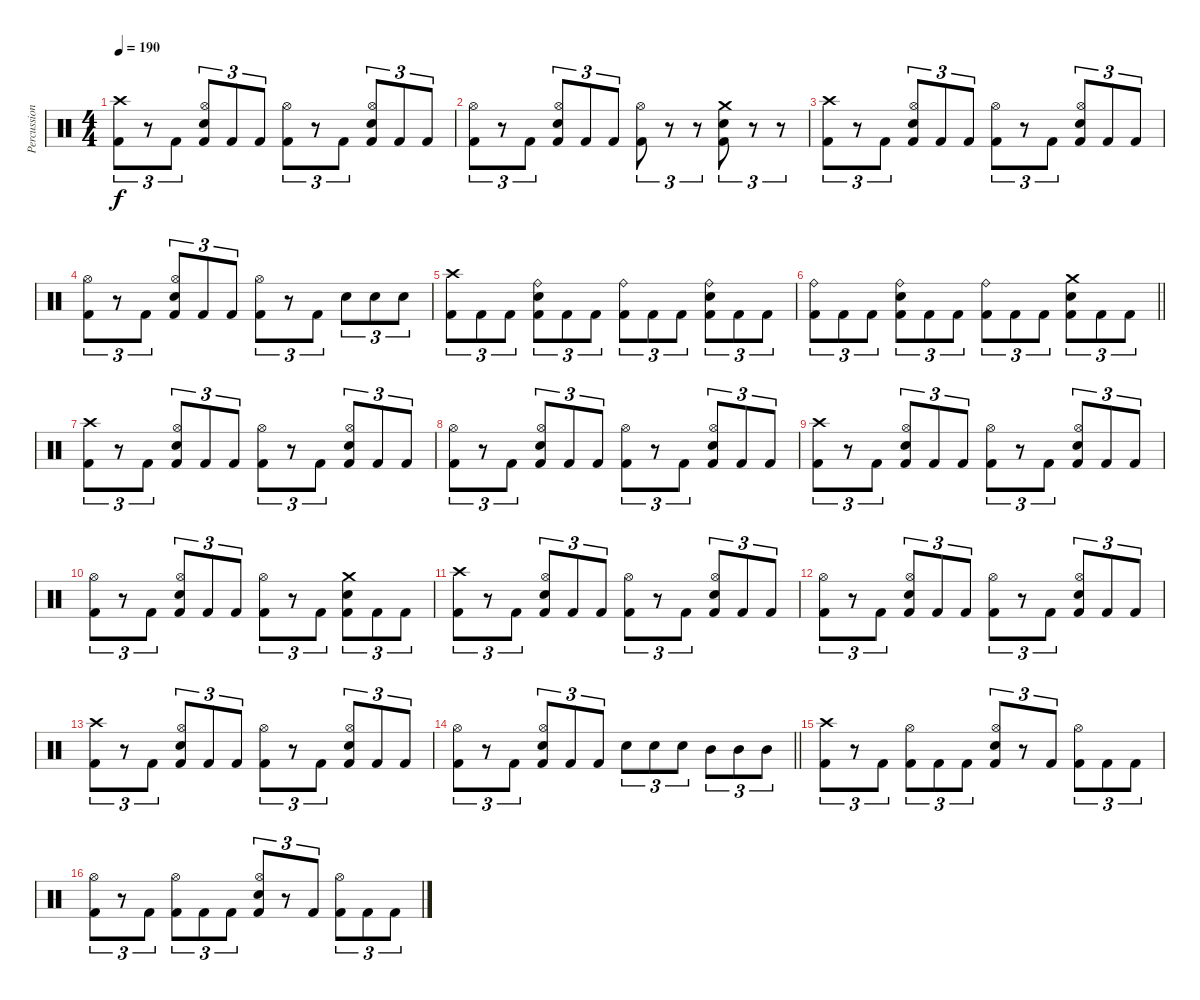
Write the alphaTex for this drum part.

\track ("Percussion" "Percussion") {instrument percussion}
\staff {score}
\articulation defaults
\ts (4 4)
\section ("" "")
\tempo 190
\clef neutral
\ks c
("Crash high (hit)" "Kick (hit) 2").8{tu (3 2) dy f} r.8{tu (3 2)} "Kick (hit) 2".8{tu (3 2)} ("Hi-Hat (open)" "Snare (hit) 2" "Kick (hit) 2").8{tu (3 2)} "Kick (hit) 2".8{tu (3 2)} "Kick (hit) 2".8{tu (3 2)} ("Hi-Hat (open)" "Kick (hit) 2").8{tu (3 2)} r.8{tu (3 2)} "Kick (hit) 2".8{tu (3 2)} ("Hi-Hat (open)" "Snare (hit) 2" "Kick (hit) 2").8{tu (3 2)} "Kick (hit) 2".8{tu (3 2)} "Kick (hit) 2".8{tu (3 2)} |
("Hi-Hat (open)" "Kick (hit) 2").8{tu (3 2)} r.8{tu (3 2)} "Kick (hit) 2".8{tu (3 2)} ("Hi-Hat (open)" "Snare (hit) 2" "Kick (hit) 2").8{tu (3 2)} "Kick (hit) 2".8{tu (3 2)} "Kick (hit) 2".8{tu (3 2)} ("Hi-Hat (open)" "Kick (hit) 2").8{tu (3 2)} r.8{tu (3 2)} r.8{tu (3 2)} ("Crash medium (hit)" "Snare (hit) 2" "Kick (hit) 2").8{tu (3 2)} r.8{tu (3 2)} r.8{tu (3 2)} |
("Crash high (hit)" "Kick (hit) 2").8{tu (3 2)} r.8{tu (3 2)} "Kick (hit) 2".8{tu (3 2)} ("Hi-Hat (open)" "Snare (hit) 2" "Kick (hit) 2").8{tu (3 2)} "Kick (hit) 2".8{tu (3 2)} "Kick (hit) 2".8{tu (3 2)} ("Hi-Hat (open)" "Kick (hit) 2").8{tu (3 2)} r.8{tu (3 2)} "Kick (hit) 2".8{tu (3 2)} ("Hi-Hat (open)" "Snare (hit) 2" "Kick (hit) 2").8{tu (3 2)} "Kick (hit) 2".8{tu (3 2)} "Kick (hit) 2".8{tu (3 2)} |
("Hi-Hat (open)" "Kick (hit) 2").8{tu (3 2)} r.8{tu (3 2)} "Kick (hit) 2".8{tu (3 2)} ("Hi-Hat (open)" "Snare (hit) 2" "Kick (hit) 2").8{tu (3 2)} "Kick (hit) 2".8{tu (3 2)} "Kick (hit) 2".8{tu (3 2)} ("Hi-Hat (open)" "Kick (hit) 2").8{tu (3 2)} r.8{tu (3 2)} "Kick (hit) 2".8{tu (3 2)} "Snare (hit) 2".8{tu (3 2)} "Snare (hit) 2".8{tu (3 2)} "Snare (hit) 2".8{tu (3 2)} |
("Crash high (hit)" "Kick (hit) 2").8{tu (3 2)} "Kick (hit) 2".8{tu (3 2)} "Kick (hit) 2".8{tu (3 2)} ("Ride (bell)" "Snare (hit) 2" "Kick (hit) 2").8{tu (3 2)} "Kick (hit) 2".8{tu (3 2)} "Kick (hit) 2".8{tu (3 2)} ("Ride (bell)" "Kick (hit) 2").8{tu (3 2)} "Kick (hit) 2".8{tu (3 2)} "Kick (hit) 2".8{tu (3 2)} ("Ride (bell)" "Snare (hit) 2" "Kick (hit) 2").8{tu (3 2)} "Kick (hit) 2".8{tu (3 2)} "Kick (hit) 2".8{tu (3 2)} |
\barLineRight lightlight
("Ride (bell)" "Kick (hit) 2").8{tu (3 2)} "Kick (hit) 2".8{tu (3 2)} "Kick (hit) 2".8{tu (3 2)} ("Ride (bell)" "Snare (hit) 2" "Kick (hit) 2").8{tu (3 2)} "Kick (hit) 2".8{tu (3 2)} "Kick (hit) 2".8{tu (3 2)} ("Ride (bell)" "Kick (hit) 2").8{tu (3 2)} "Kick (hit) 2".8{tu (3 2)} "Kick (hit) 2".8{tu (3 2)} ("Crash medium (hit)" "Snare (hit) 2" "Kick (hit) 2").8{tu (3 2)} "Kick (hit) 2".8{tu (3 2)} "Kick (hit) 2".8{tu (3 2)} |
("Crash high (hit)" "Kick (hit) 2").8{tu (3 2)} r.8{tu (3 2)} "Kick (hit) 2".8{tu (3 2)} ("Hi-Hat (open)" "Snare (hit) 2" "Kick (hit) 2").8{tu (3 2)} "Kick (hit) 2".8{tu (3 2)} "Kick (hit) 2".8{tu (3 2)} ("Hi-Hat (open)" "Kick (hit) 2").8{tu (3 2)} r.8{tu (3 2)} "Kick (hit) 2".8{tu (3 2)} ("Hi-Hat (open)" "Snare (hit) 2" "Kick (hit) 2").8{tu (3 2)} "Kick (hit) 2".8{tu (3 2)} "Kick (hit) 2".8{tu (3 2)} |
("Hi-Hat (open)" "Kick (hit) 2").8{tu (3 2)} r.8{tu (3 2)} "Kick (hit) 2".8{tu (3 2)} ("Hi-Hat (open)" "Snare (hit) 2" "Kick (hit) 2").8{tu (3 2)} "Kick (hit) 2".8{tu (3 2)} "Kick (hit) 2".8{tu (3 2)} ("Hi-Hat (open)" "Kick (hit) 2").8{tu (3 2)} r.8{tu (3 2)} "Kick (hit) 2".8{tu (3 2)} ("Hi-Hat (open)" "Snare (hit) 2" "Kick (hit) 2").8{tu (3 2)} "Kick (hit) 2".8{tu (3 2)} "Kick (hit) 2".8{tu (3 2)} |
("Crash high (hit)" "Kick (hit) 2").8{tu (3 2)} r.8{tu (3 2)} "Kick (hit) 2".8{tu (3 2)} ("Hi-Hat (open)" "Snare (hit) 2" "Kick (hit) 2").8{tu (3 2)} "Kick (hit) 2".8{tu (3 2)} "Kick (hit) 2".8{tu (3 2)} ("Hi-Hat (open)" "Kick (hit) 2").8{tu (3 2)} r.8{tu (3 2)} "Kick (hit) 2".8{tu (3 2)} ("Hi-Hat (open)" "Snare (hit) 2" "Kick (hit) 2").8{tu (3 2)} "Kick (hit) 2".8{tu (3 2)} "Kick (hit) 2".8{tu (3 2)} |
("Hi-Hat (open)" "Kick (hit) 2").8{tu (3 2)} r.8{tu (3 2)} "Kick (hit) 2".8{tu (3 2)} ("Hi-Hat (open)" "Snare (hit) 2" "Kick (hit) 2").8{tu (3 2)} "Kick (hit) 2".8{tu (3 2)} "Kick (hit) 2".8{tu (3 2)} ("Hi-Hat (open)" "Kick (hit) 2").8{tu (3 2)} r.8{tu (3 2)} "Kick (hit) 2".8{tu (3 2)} ("Crash medium (hit)" "Snare (hit) 2" "Kick (hit) 2").8{tu (3 2)} "Kick (hit) 2".8{tu (3 2)} "Kick (hit) 2".8{tu (3 2)} |
("Crash high (hit)" "Kick (hit) 2").8{tu (3 2)} r.8{tu (3 2)} "Kick (hit) 2".8{tu (3 2)} ("Hi-Hat (open)" "Snare (hit) 2" "Kick (hit) 2").8{tu (3 2)} "Kick (hit) 2".8{tu (3 2)} "Kick (hit) 2".8{tu (3 2)} ("Hi-Hat (open)" "Kick (hit) 2").8{tu (3 2)} r.8{tu (3 2)} "Kick (hit) 2".8{tu (3 2)} ("Hi-Hat (open)" "Snare (hit) 2" "Kick (hit) 2").8{tu (3 2)} "Kick (hit) 2".8{tu (3 2)} "Kick (hit) 2".8{tu (3 2)} |
("Hi-Hat (open)" "Kick (hit) 2").8{tu (3 2)} r.8{tu (3 2)} "Kick (hit) 2".8{tu (3 2)} ("Hi-Hat (open)" "Snare (hit) 2" "Kick (hit) 2").8{tu (3 2)} "Kick (hit) 2".8{tu (3 2)} "Kick (hit) 2".8{tu (3 2)} ("Hi-Hat (open)" "Kick (hit) 2").8{tu (3 2)} r.8{tu (3 2)} "Kick (hit) 2".8{tu (3 2)} ("Hi-Hat (open)" "Snare (hit) 2" "Kick (hit) 2").8{tu (3 2)} "Kick (hit) 2".8{tu (3 2)} "Kick (hit) 2".8{tu (3 2)} |
("Crash high (hit)" "Kick (hit) 2").8{tu (3 2)} r.8{tu (3 2)} "Kick (hit) 2".8{tu (3 2)} ("Hi-Hat (open)" "Snare (hit) 2" "Kick (hit) 2").8{tu (3 2)} "Kick (hit) 2".8{tu (3 2)} "Kick (hit) 2".8{tu (3 2)} ("Hi-Hat (open)" "Kick (hit) 2").8{tu (3 2)} r.8{tu (3 2)} "Kick (hit) 2".8{tu (3 2)} ("Hi-Hat (open)" "Snare (hit) 2" "Kick (hit) 2").8{tu (3 2)} "Kick (hit) 2".8{tu (3 2)} "Kick (hit) 2".8{tu (3 2)} |
\barLineRight lightlight
("Hi-Hat (open)" "Kick (hit) 2").8{tu (3 2)} r.8{tu (3 2)} "Kick (hit) 2".8{tu (3 2)} ("Hi-Hat (open)" "Snare (hit) 2" "Kick (hit) 2").8{tu (3 2)} "Kick (hit) 2".8{tu (3 2)} "Kick (hit) 2".8{tu (3 2)} "Snare (hit) 2".8{tu (3 2)} "Snare (hit) 2".8{tu (3 2)} "Snare (hit) 2".8{tu (3 2)} "Mid Tom (hit)".8{tu (3 2)} "Mid Tom (hit)".8{tu (3 2)} "Mid Tom (hit)".8{tu (3 2)} |
\section ("" "")
("Crash high (hit)" "Kick (hit) 2").8{tu (3 2)} r.8{tu (3 2)} "Kick (hit) 2".8{tu (3 2)} ("Hi-Hat (open)" "Kick (hit) 2").8{tu (3 2)} "Kick (hit) 2".8{tu (3 2)} "Kick (hit) 2".8{tu (3 2)} ("Hi-Hat (open)" "Snare (hit) 2" "Kick (hit) 2").8{tu (3 2)} r.8{tu (3 2)} "Kick (hit) 2".8{tu (3 2)} ("Hi-Hat (open)" "Kick (hit) 2").8{tu (3 2)} "Kick (hit) 2".8{tu (3 2)} "Kick (hit) 2".8{tu (3 2)} |
("Hi-Hat (open)" "Kick (hit) 2").8{tu (3 2)} r.8{tu (3 2)} "Kick (hit) 2".8{tu (3 2)} ("Hi-Hat (open)" "Kick (hit) 2").8{tu (3 2)} "Kick (hit) 2".8{tu (3 2)} "Kick (hit) 2".8{tu (3 2)} ("Hi-Hat (open)" "Snare (hit) 2" "Kick (hit) 2").8{tu (3 2)} r.8{tu (3 2)} "Kick (hit) 2".8{tu (3 2)} ("Hi-Hat (open)" "Kick (hit) 2").8{tu (3 2)} "Kick (hit) 2".8{tu (3 2)} "Kick (hit) 2".8{tu (3 2)}
